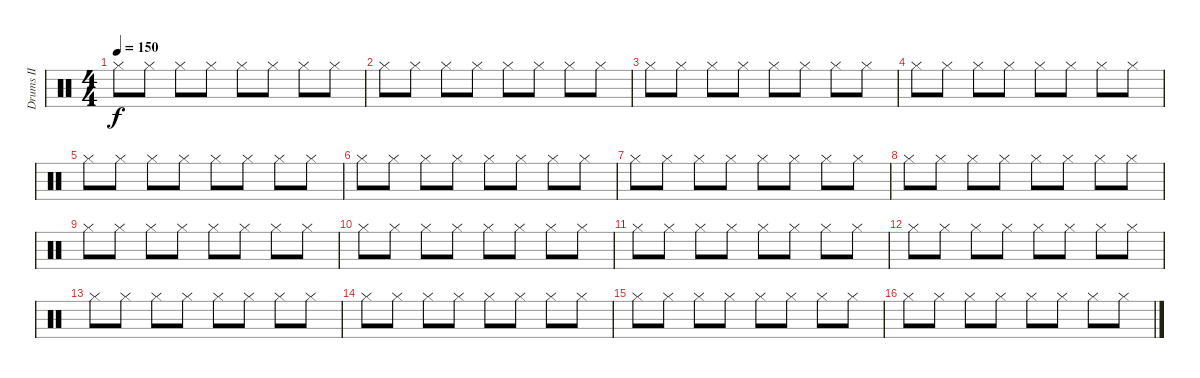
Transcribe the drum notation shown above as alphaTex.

\track ("Drums II" "Drums II") {instrument percussion}
\staff {score}
\articulation defaults
\ts (4 4)
\tempo 150
\clef neutral
\ks c "Hi-Hat (closed)".8{dy f} "Hi-Hat (closed)".8 "Hi-Hat (closed)".8 "Hi-Hat (closed)".8 "Hi-Hat (closed)".8 "Hi-Hat (closed)".8 "Hi-Hat (closed)".8 "Hi-Hat (closed)".8
|
"Hi-Hat (closed)".8 "Hi-Hat (closed)".8 "Hi-Hat (closed)".8 "Hi-Hat (closed)".8 "Hi-Hat (closed)".8 "Hi-Hat (closed)".8 "Hi-Hat (closed)".8 "Hi-Hat (closed)".8 |
"Hi-Hat (closed)".8 "Hi-Hat (closed)".8 "Hi-Hat (closed)".8 "Hi-Hat (closed)".8 "Hi-Hat (closed)".8 "Hi-Hat (closed)".8 "Hi-Hat (closed)".8 "Hi-Hat (closed)".8 |
"Hi-Hat (closed)".8 "Hi-Hat (closed)".8 "Hi-Hat (closed)".8 "Hi-Hat (closed)".8 "Hi-Hat (closed)".8 "Hi-Hat (closed)".8 "Hi-Hat (closed)".8 "Hi-Hat (closed)".8 |
"Hi-Hat (closed)".8 "Hi-Hat (closed)".8 "Hi-Hat (closed)".8 "Hi-Hat (closed)".8 "Hi-Hat (closed)".8 "Hi-Hat (closed)".8 "Hi-Hat (closed)".8 "Hi-Hat (closed)".8 |
"Hi-Hat (closed)".8 "Hi-Hat (closed)".8 "Hi-Hat (closed)".8 "Hi-Hat (closed)".8 "Hi-Hat (closed)".8 "Hi-Hat (closed)".8 "Hi-Hat (closed)".8 "Hi-Hat (closed)".8 |
"Hi-Hat (closed)".8 "Hi-Hat (closed)".8 "Hi-Hat (closed)".8 "Hi-Hat (closed)".8 "Hi-Hat (closed)".8 "Hi-Hat (closed)".8 "Hi-Hat (closed)".8 "Hi-Hat (closed)".8 |
"Hi-Hat (closed)".8 "Hi-Hat (closed)".8 "Hi-Hat (closed)".8 "Hi-Hat (closed)".8 "Hi-Hat (closed)".8 "Hi-Hat (closed)".8 "Hi-Hat (closed)".8 "Hi-Hat (closed)".8 |
"Hi-Hat (closed)".8 "Hi-Hat (closed)".8 "Hi-Hat (closed)".8 "Hi-Hat (closed)".8 "Hi-Hat (closed)".8 "Hi-Hat (closed)".8 "Hi-Hat (closed)".8 "Hi-Hat (closed)".8 |
"Hi-Hat (closed)".8 "Hi-Hat (closed)".8 "Hi-Hat (closed)".8 "Hi-Hat (closed)".8 "Hi-Hat (closed)".8 "Hi-Hat (closed)".8 "Hi-Hat (closed)".8 "Hi-Hat (closed)".8 |
"Hi-Hat (closed)".8 "Hi-Hat (closed)".8 "Hi-Hat (closed)".8 "Hi-Hat (closed)".8 "Hi-Hat (closed)".8 "Hi-Hat (closed)".8 "Hi-Hat (closed)".8 "Hi-Hat (closed)".8 |
"Hi-Hat (closed)".8 "Hi-Hat (closed)".8 "Hi-Hat (closed)".8 "Hi-Hat (closed)".8 "Hi-Hat (closed)".8 "Hi-Hat (closed)".8 "Hi-Hat (closed)".8 "Hi-Hat (closed)".8 |
"Hi-Hat (closed)".8 "Hi-Hat (closed)".8 "Hi-Hat (closed)".8 "Hi-Hat (closed)".8 "Hi-Hat (closed)".8 "Hi-Hat (closed)".8 "Hi-Hat (closed)".8 "Hi-Hat (closed)".8 |
"Hi-Hat (closed)".8 "Hi-Hat (closed)".8 "Hi-Hat (closed)".8 "Hi-Hat (closed)".8 "Hi-Hat (closed)".8 "Hi-Hat (closed)".8 "Hi-Hat (closed)".8 "Hi-Hat (closed)".8 |
"Hi-Hat (closed)".8 "Hi-Hat (closed)".8 "Hi-Hat (closed)".8 "Hi-Hat (closed)".8 "Hi-Hat (closed)".8 "Hi-Hat (closed)".8 "Hi-Hat (closed)".8 "Hi-Hat (closed)".8 |
"Hi-Hat (closed)".8 "Hi-Hat (closed)".8 "Hi-Hat (closed)".8 "Hi-Hat (closed)".8 "Hi-Hat (closed)".8 "Hi-Hat (closed)".8 "Hi-Hat (closed)".8 "Hi-Hat (closed)".8
